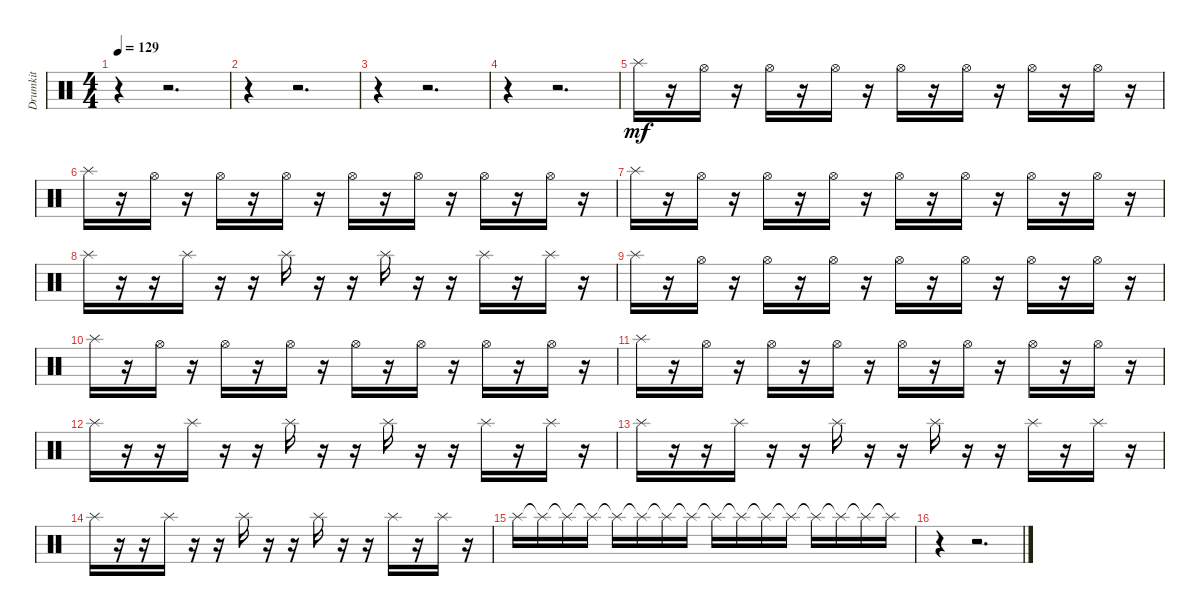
\track ("Drumkit" "Drumkit") {instrument percussion}
\staff {score}
\articulation defaults
\ts (4 4)
\tempo 129
\clef neutral
\ks c
r.4{dy mf} r.2{d} |
r.4 r.2{d} |
r.4 r.2{d} |
r.4 r.2{d} |
"Splash (hit)".16 r.16 "Hi-Hat (open)".16 r.16 "Hi-Hat (open)".16 r.16 "Hi-Hat (open)".16 r.16 "Hi-Hat (open)".16 r.16 "Hi-Hat (open)".16 r.16 "Hi-Hat (open)".16 r.16 "Hi-Hat (open)".16 r.16 |
"Splash (hit)".16 r.16 "Hi-Hat (open)".16 r.16 "Hi-Hat (open)".16 r.16 "Hi-Hat (open)".16 r.16 "Hi-Hat (open)".16 r.16 "Hi-Hat (open)".16 r.16 "Hi-Hat (open)".16 r.16 "Hi-Hat (open)".16 r.16 |
"Splash (hit)".16 r.16 "Hi-Hat (open)".16 r.16 "Hi-Hat (open)".16 r.16 "Hi-Hat (open)".16 r.16 "Hi-Hat (open)".16 r.16 "Hi-Hat (open)".16 r.16 "Hi-Hat (open)".16 r.16 "Hi-Hat (open)".16 r.16 |
"Splash (hit)".16 r.16 r.16 "Splash (hit)".16 r.16 r.16 "Splash (hit)".16 r.16 r.16 "Splash (hit)".16 r.16 r.16 "Splash (hit)".16 r.16 "Splash (hit)".16 r.16 |
"Splash (hit)".16 r.16 "Hi-Hat (open)".16 r.16 "Hi-Hat (open)".16 r.16 "Hi-Hat (open)".16 r.16 "Hi-Hat (open)".16 r.16 "Hi-Hat (open)".16 r.16 "Hi-Hat (open)".16 r.16 "Hi-Hat (open)".16 r.16 |
"Splash (hit)".16 r.16 "Hi-Hat (open)".16 r.16 "Hi-Hat (open)".16 r.16 "Hi-Hat (open)".16 r.16 "Hi-Hat (open)".16 r.16 "Hi-Hat (open)".16 r.16 "Hi-Hat (open)".16 r.16 "Hi-Hat (open)".16 r.16 |
"Splash (hit)".16 r.16 "Hi-Hat (open)".16 r.16 "Hi-Hat (open)".16 r.16 "Hi-Hat (open)".16 r.16 "Hi-Hat (open)".16 r.16 "Hi-Hat (open)".16 r.16 "Hi-Hat (open)".16 r.16 "Hi-Hat (open)".16 r.16 |
"Splash (hit)".16 r.16 r.16 "Splash (hit)".16 r.16 r.16 "Splash (hit)".16 r.16 r.16 "Splash (hit)".16 r.16 r.16 "Splash (hit)".16 r.16 "Splash (hit)".16 r.16 |
"Splash (hit)".16 r.16 r.16 "Splash (hit)".16 r.16 r.16 "Splash (hit)".16 r.16 r.16 "Splash (hit)".16 r.16 r.16 "Splash (hit)".16 r.16 "Splash (hit)".16 r.16 |
"Splash (hit)".16 r.16 r.16 "Splash (hit)".16 r.16 r.16 "Splash (hit)".16 r.16 r.16 "Splash (hit)".16 r.16 r.16 "Splash (hit)".16 r.16 "Splash (hit)".16 r.16 |
"Splash (hit)".16 "Splash (hit)"{t}.16 "Splash (hit)"{t}.16 "Splash (hit)"{t}.16 "Splash (hit)"{t}.16 "Splash (hit)"{t}.16 "Splash (hit)"{t}.16 "Splash (hit)"{t}.16 "Splash (hit)"{t}.16 "Splash (hit)"{t}.16 "Splash (hit)"{t}.16 "Splash (hit)"{t}.16 "Splash (hit)"{t}.16 "Splash (hit)"{t}.16 "Splash (hit)"{t}.16 "Splash (hit)"{t}.16 |
r.4 r.2{d}
